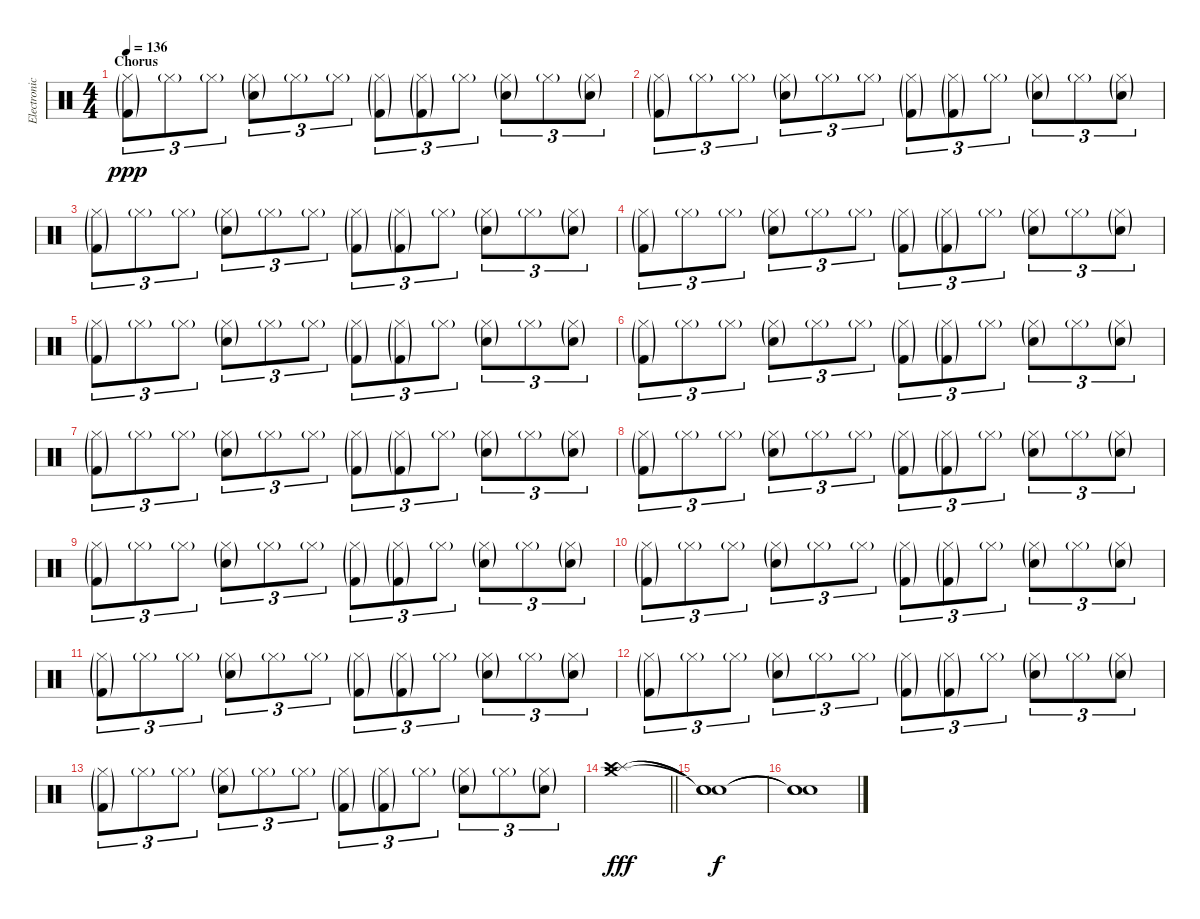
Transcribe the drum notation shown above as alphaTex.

\track ("Electronic Drums" "Electronic") {instrument percussion}
\staff {score}
\articulation defaults
\ts (4 4)
\section ("" "Chorus")
\tempo 136
\clef neutral
\ks c
("Hi-Hat (closed)"{g} "Kick (hit) 2"{g}).8{tu (3 2) dy ppp} "Hi-Hat (closed)"{g}.8{tu (3 2)} "Hi-Hat (closed)"{g}.8{tu (3 2)} ("Hi-Hat (closed)"{g} "Snare (hit) 2"{g}).8{tu (3 2)} "Hi-Hat (closed)"{g}.8{tu (3 2)} "Hi-Hat (closed)"{g}.8{tu (3 2)} ("Hi-Hat (closed)"{g} "Kick (hit) 2"{g}).8{tu (3 2)} ("Hi-Hat (closed)"{g} "Kick (hit) 2"{g}).8{tu (3 2)} "Hi-Hat (closed)"{g}.8{tu (3 2)} ("Hi-Hat (closed)"{g} "Snare (hit) 2"{g}).8{tu (3 2)} "Hi-Hat (closed)"{g}.8{tu (3 2)} ("Hi-Hat (closed)"{g} "Snare (hit) 2"{g}).8{tu (3 2)} |
("Hi-Hat (closed)"{g} "Kick (hit) 2"{g}).8{tu (3 2)} "Hi-Hat (closed)"{g}.8{tu (3 2)} "Hi-Hat (closed)"{g}.8{tu (3 2)} ("Hi-Hat (closed)"{g} "Snare (hit) 2"{g}).8{tu (3 2)} "Hi-Hat (closed)"{g}.8{tu (3 2)} "Hi-Hat (closed)"{g}.8{tu (3 2)} ("Hi-Hat (closed)"{g} "Kick (hit) 2"{g}).8{tu (3 2)} ("Hi-Hat (closed)"{g} "Kick (hit) 2"{g}).8{tu (3 2)} "Hi-Hat (closed)"{g}.8{tu (3 2)} ("Hi-Hat (closed)"{g} "Snare (hit) 2"{g}).8{tu (3 2)} "Hi-Hat (closed)"{g}.8{tu (3 2)} ("Hi-Hat (closed)"{g} "Snare (hit) 2"{g}).8{tu (3 2)} |
("Hi-Hat (closed)"{g} "Kick (hit) 2"{g}).8{tu (3 2)} "Hi-Hat (closed)"{g}.8{tu (3 2)} "Hi-Hat (closed)"{g}.8{tu (3 2)} ("Hi-Hat (closed)"{g} "Snare (hit) 2"{g}).8{tu (3 2)} "Hi-Hat (closed)"{g}.8{tu (3 2)} "Hi-Hat (closed)"{g}.8{tu (3 2)} ("Hi-Hat (closed)"{g} "Kick (hit) 2"{g}).8{tu (3 2)} ("Hi-Hat (closed)"{g} "Kick (hit) 2"{g}).8{tu (3 2)} "Hi-Hat (closed)"{g}.8{tu (3 2)} ("Hi-Hat (closed)"{g} "Snare (hit) 2"{g}).8{tu (3 2)} "Hi-Hat (closed)"{g}.8{tu (3 2)} ("Hi-Hat (closed)"{g} "Snare (hit) 2"{g}).8{tu (3 2)} |
("Hi-Hat (closed)"{g} "Kick (hit) 2"{g}).8{tu (3 2)} "Hi-Hat (closed)"{g}.8{tu (3 2)} "Hi-Hat (closed)"{g}.8{tu (3 2)} ("Hi-Hat (closed)"{g} "Snare (hit) 2"{g}).8{tu (3 2)} "Hi-Hat (closed)"{g}.8{tu (3 2)} "Hi-Hat (closed)"{g}.8{tu (3 2)} ("Hi-Hat (closed)"{g} "Kick (hit) 2"{g}).8{tu (3 2)} ("Hi-Hat (closed)"{g} "Kick (hit) 2"{g}).8{tu (3 2)} "Hi-Hat (closed)"{g}.8{tu (3 2)} ("Hi-Hat (closed)"{g} "Snare (hit) 2"{g}).8{tu (3 2)} "Hi-Hat (closed)"{g}.8{tu (3 2)} ("Hi-Hat (closed)"{g} "Snare (hit) 2"{g}).8{tu (3 2)} |
("Hi-Hat (closed)"{g} "Kick (hit) 2"{g}).8{tu (3 2)} "Hi-Hat (closed)"{g}.8{tu (3 2)} "Hi-Hat (closed)"{g}.8{tu (3 2)} ("Hi-Hat (closed)"{g} "Snare (hit) 2"{g}).8{tu (3 2)} "Hi-Hat (closed)"{g}.8{tu (3 2)} "Hi-Hat (closed)"{g}.8{tu (3 2)} ("Hi-Hat (closed)"{g} "Kick (hit) 2"{g}).8{tu (3 2)} ("Hi-Hat (closed)"{g} "Kick (hit) 2"{g}).8{tu (3 2)} "Hi-Hat (closed)"{g}.8{tu (3 2)} ("Hi-Hat (closed)"{g} "Snare (hit) 2"{g}).8{tu (3 2)} "Hi-Hat (closed)"{g}.8{tu (3 2)} ("Hi-Hat (closed)"{g} "Snare (hit) 2"{g}).8{tu (3 2)} |
("Hi-Hat (closed)"{g} "Kick (hit) 2"{g}).8{tu (3 2)} "Hi-Hat (closed)"{g}.8{tu (3 2)} "Hi-Hat (closed)"{g}.8{tu (3 2)} ("Hi-Hat (closed)"{g} "Snare (hit) 2"{g}).8{tu (3 2)} "Hi-Hat (closed)"{g}.8{tu (3 2)} "Hi-Hat (closed)"{g}.8{tu (3 2)} ("Hi-Hat (closed)"{g} "Kick (hit) 2"{g}).8{tu (3 2)} ("Hi-Hat (closed)"{g} "Kick (hit) 2"{g}).8{tu (3 2)} "Hi-Hat (closed)"{g}.8{tu (3 2)} ("Hi-Hat (closed)"{g} "Snare (hit) 2"{g}).8{tu (3 2)} "Hi-Hat (closed)"{g}.8{tu (3 2)} ("Hi-Hat (closed)"{g} "Snare (hit) 2"{g}).8{tu (3 2)} |
("Hi-Hat (closed)"{g} "Kick (hit) 2"{g}).8{tu (3 2)} "Hi-Hat (closed)"{g}.8{tu (3 2)} "Hi-Hat (closed)"{g}.8{tu (3 2)} ("Hi-Hat (closed)"{g} "Snare (hit) 2"{g}).8{tu (3 2)} "Hi-Hat (closed)"{g}.8{tu (3 2)} "Hi-Hat (closed)"{g}.8{tu (3 2)} ("Hi-Hat (closed)"{g} "Kick (hit) 2"{g}).8{tu (3 2)} ("Hi-Hat (closed)"{g} "Kick (hit) 2"{g}).8{tu (3 2)} "Hi-Hat (closed)"{g}.8{tu (3 2)} ("Hi-Hat (closed)"{g} "Snare (hit) 2"{g}).8{tu (3 2)} "Hi-Hat (closed)"{g}.8{tu (3 2)} ("Hi-Hat (closed)"{g} "Snare (hit) 2"{g}).8{tu (3 2)} |
("Hi-Hat (closed)"{g} "Kick (hit) 2"{g}).8{tu (3 2)} "Hi-Hat (closed)"{g}.8{tu (3 2)} "Hi-Hat (closed)"{g}.8{tu (3 2)} ("Hi-Hat (closed)"{g} "Snare (hit) 2"{g}).8{tu (3 2)} "Hi-Hat (closed)"{g}.8{tu (3 2)} "Hi-Hat (closed)"{g}.8{tu (3 2)} ("Hi-Hat (closed)"{g} "Kick (hit) 2"{g}).8{tu (3 2)} ("Hi-Hat (closed)"{g} "Kick (hit) 2"{g}).8{tu (3 2)} "Hi-Hat (closed)"{g}.8{tu (3 2)} ("Hi-Hat (closed)"{g} "Snare (hit) 2"{g}).8{tu (3 2)} "Hi-Hat (closed)"{g}.8{tu (3 2)} ("Hi-Hat (closed)"{g} "Snare (hit) 2"{g}).8{tu (3 2)} |
("Hi-Hat (closed)"{g} "Kick (hit) 2"{g}).8{tu (3 2)} "Hi-Hat (closed)"{g}.8{tu (3 2)} "Hi-Hat (closed)"{g}.8{tu (3 2)} ("Hi-Hat (closed)"{g} "Snare (hit) 2"{g}).8{tu (3 2)} "Hi-Hat (closed)"{g}.8{tu (3 2)} "Hi-Hat (closed)"{g}.8{tu (3 2)} ("Hi-Hat (closed)"{g} "Kick (hit) 2"{g}).8{tu (3 2)} ("Hi-Hat (closed)"{g} "Kick (hit) 2"{g}).8{tu (3 2)} "Hi-Hat (closed)"{g}.8{tu (3 2)} ("Hi-Hat (closed)"{g} "Snare (hit) 2"{g}).8{tu (3 2)} "Hi-Hat (closed)"{g}.8{tu (3 2)} ("Hi-Hat (closed)"{g} "Snare (hit) 2"{g}).8{tu (3 2)} |
("Hi-Hat (closed)"{g} "Kick (hit) 2"{g}).8{tu (3 2)} "Hi-Hat (closed)"{g}.8{tu (3 2)} "Hi-Hat (closed)"{g}.8{tu (3 2)} ("Hi-Hat (closed)"{g} "Snare (hit) 2"{g}).8{tu (3 2)} "Hi-Hat (closed)"{g}.8{tu (3 2)} "Hi-Hat (closed)"{g}.8{tu (3 2)} ("Hi-Hat (closed)"{g} "Kick (hit) 2"{g}).8{tu (3 2)} ("Hi-Hat (closed)"{g} "Kick (hit) 2"{g}).8{tu (3 2)} "Hi-Hat (closed)"{g}.8{tu (3 2)} ("Hi-Hat (closed)"{g} "Snare (hit) 2"{g}).8{tu (3 2)} "Hi-Hat (closed)"{g}.8{tu (3 2)} ("Hi-Hat (closed)"{g} "Snare (hit) 2"{g}).8{tu (3 2)} |
("Hi-Hat (closed)"{g} "Kick (hit) 2"{g}).8{tu (3 2)} "Hi-Hat (closed)"{g}.8{tu (3 2)} "Hi-Hat (closed)"{g}.8{tu (3 2)} ("Hi-Hat (closed)"{g} "Snare (hit) 2"{g}).8{tu (3 2)} "Hi-Hat (closed)"{g}.8{tu (3 2)} "Hi-Hat (closed)"{g}.8{tu (3 2)} ("Hi-Hat (closed)"{g} "Kick (hit) 2"{g}).8{tu (3 2)} ("Hi-Hat (closed)"{g} "Kick (hit) 2"{g}).8{tu (3 2)} "Hi-Hat (closed)"{g}.8{tu (3 2)} ("Hi-Hat (closed)"{g} "Snare (hit) 2"{g}).8{tu (3 2)} "Hi-Hat (closed)"{g}.8{tu (3 2)} ("Hi-Hat (closed)"{g} "Snare (hit) 2"{g}).8{tu (3 2)} |
("Hi-Hat (closed)"{g} "Kick (hit) 2"{g}).8{tu (3 2)} "Hi-Hat (closed)"{g}.8{tu (3 2)} "Hi-Hat (closed)"{g}.8{tu (3 2)} ("Hi-Hat (closed)"{g} "Snare (hit) 2"{g}).8{tu (3 2)} "Hi-Hat (closed)"{g}.8{tu (3 2)} "Hi-Hat (closed)"{g}.8{tu (3 2)} ("Hi-Hat (closed)"{g} "Kick (hit) 2"{g}).8{tu (3 2)} ("Hi-Hat (closed)"{g} "Kick (hit) 2"{g}).8{tu (3 2)} "Hi-Hat (closed)"{g}.8{tu (3 2)} ("Hi-Hat (closed)"{g} "Snare (hit) 2"{g}).8{tu (3 2)} "Hi-Hat (closed)"{g}.8{tu (3 2)} ("Hi-Hat (closed)"{g} "Snare (hit) 2"{g}).8{tu (3 2)} |
("Hi-Hat (closed)"{g} "Kick (hit) 2"{g}).8{tu (3 2)} "Hi-Hat (closed)"{g}.8{tu (3 2)} "Hi-Hat (closed)"{g}.8{tu (3 2)} ("Hi-Hat (closed)"{g} "Snare (hit) 2"{g}).8{tu (3 2)} "Hi-Hat (closed)"{g}.8{tu (3 2)} "Hi-Hat (closed)"{g}.8{tu (3 2)} ("Hi-Hat (closed)"{g} "Kick (hit) 2"{g}).8{tu (3 2)} ("Hi-Hat (closed)"{g} "Kick (hit) 2"{g}).8{tu (3 2)} "Hi-Hat (closed)"{g}.8{tu (3 2)} ("Hi-Hat (closed)"{g} "Snare (hit) 2"{g}).8{tu (3 2)} "Hi-Hat (closed)"{g}.8{tu (3 2)} ("Hi-Hat (closed)"{g} "Snare (hit) 2"{g}).8{tu (3 2)} |
\barLineRight lightlight
("Splash (hit)" "Crash medium (hit)" "Crash high (hit)").1{dy fff volume 0} |
("Snare (hit)"{t} "Snare (hit)"{t} "Snare (hit)"{t}).1{dy f} |
("Snare (hit)"{t} "Snare (hit)"{t} "Snare (hit)"{t}).1
